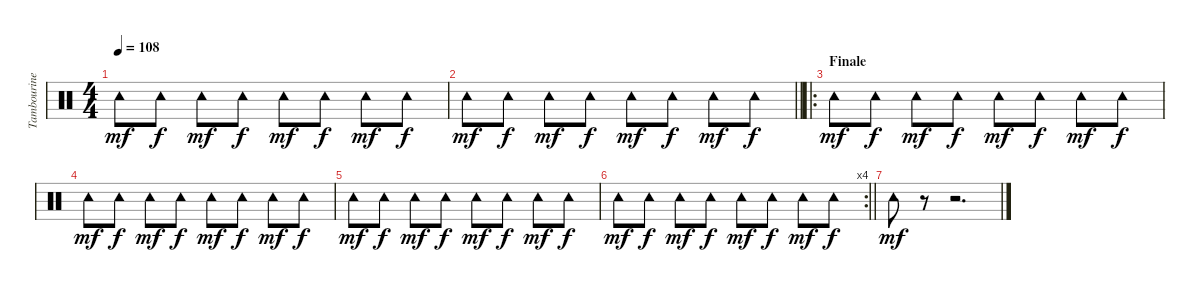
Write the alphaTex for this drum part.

\track ("Tambourine" "Tambourine") {instrument percussion}
\staff {score}
\articulation defaults
\ts (4 4)
\tempo 108
\clef neutral
\ks c "Tambourine (hit)".8{dy mf} "Tambourine (hit)".8{dy f} "Tambourine (hit)".8{dy mf} "Tambourine (hit)".8{dy f} "Tambourine (hit)".8{dy mf} "Tambourine (hit)".8{dy f} "Tambourine (hit)".8{dy mf} "Tambourine (hit)".8{dy f}
|
\barLineRight lightlight "Tambourine (hit)".8{dy mf} "Tambourine (hit)".8{dy f} "Tambourine (hit)".8{dy mf} "Tambourine (hit)".8{dy f} "Tambourine (hit)".8{dy mf} "Tambourine (hit)".8{dy f} "Tambourine (hit)".8{dy mf} "Tambourine (hit)".8{dy f}
|
\ro
\section ("" "Finale")
"Tambourine (hit)".8{dy mf} "Tambourine (hit)".8{dy f} "Tambourine (hit)".8{dy mf} "Tambourine (hit)".8{dy f} "Tambourine (hit)".8{dy mf} "Tambourine (hit)".8{dy f} "Tambourine (hit)".8{dy mf} "Tambourine (hit)".8{dy f} |
"Tambourine (hit)".8{dy mf} "Tambourine (hit)".8{dy f} "Tambourine (hit)".8{dy mf} "Tambourine (hit)".8{dy f} "Tambourine (hit)".8{dy mf} "Tambourine (hit)".8{dy f} "Tambourine (hit)".8{dy mf} "Tambourine (hit)".8{dy f} |
"Tambourine (hit)".8{dy mf} "Tambourine (hit)".8{dy f} "Tambourine (hit)".8{dy mf} "Tambourine (hit)".8{dy f} "Tambourine (hit)".8{dy mf} "Tambourine (hit)".8{dy f} "Tambourine (hit)".8{dy mf} "Tambourine (hit)".8{dy f} |
\rc 4
\barLineRight lightlight "Tambourine (hit)".8{dy mf} "Tambourine (hit)".8{dy f} "Tambourine (hit)".8{dy mf} "Tambourine (hit)".8{dy f} "Tambourine (hit)".8{dy mf} "Tambourine (hit)".8{dy f} "Tambourine (hit)".8{dy mf} "Tambourine (hit)".8{dy f}
|
"Tambourine (hit)".8{dy mf} r.8 r.2{d}
